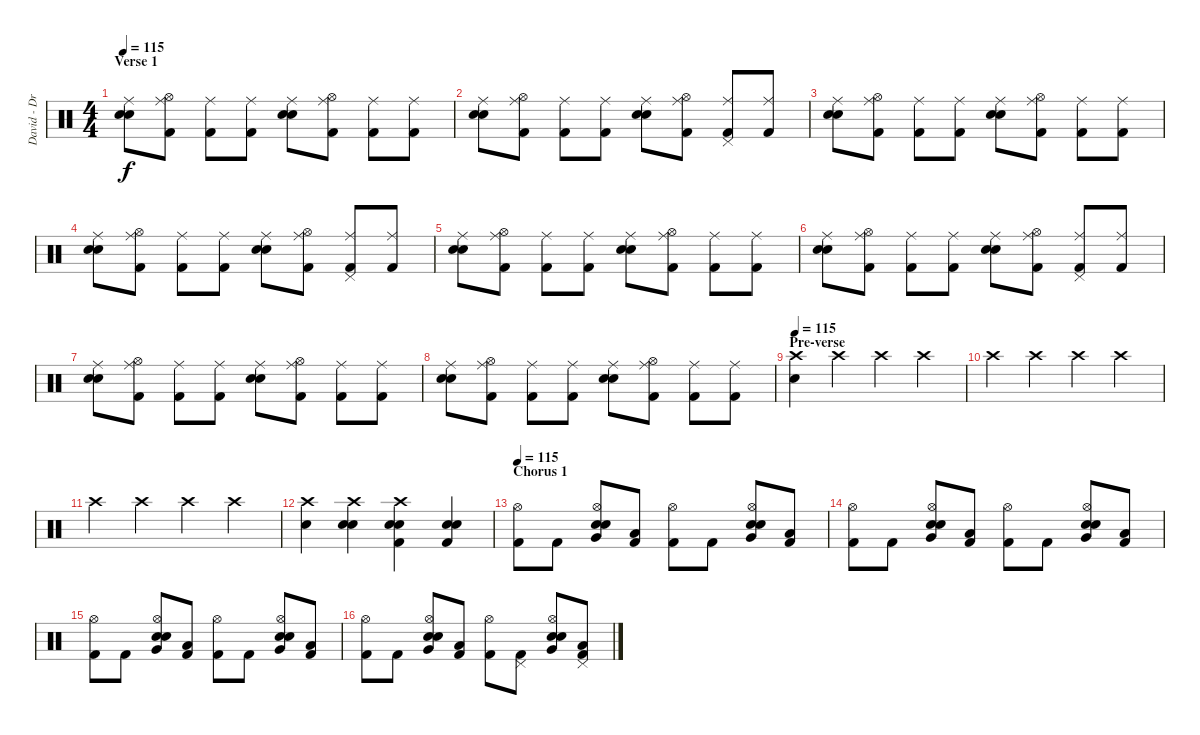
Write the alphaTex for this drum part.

\track ("David - Drums" "David - Dr") {instrument percussion}
\staff {score}
\articulation defaults
\ts (4 4)
\section ("" "Verse 1")
\tempo 115
\clef neutral
\ks c
("Ride (middle)" "Electric Snare (hit)" "Snare (hit) 2").8{dy f} ("Ride (middle)" "Hi-Hat (open)" "Kick (hit) 2").8 ("Ride (middle)" "Kick (hit) 2").8 ("Ride (middle)" "Kick (hit) 2").8 ("Ride (middle)" "Electric Snare (hit)" "Snare (hit) 2").8 ("Ride (middle)" "Hi-Hat (open)" "Kick (hit) 2").8 ("Ride (middle)" "Kick (hit) 2").8 ("Ride (middle)" "Kick (hit) 2").8 |
("Ride (middle)" "Electric Snare (hit)" "Snare (hit) 2").8 ("Ride (middle)" "Hi-Hat (open)" "Kick (hit) 2").8 ("Ride (middle)" "Kick (hit) 2").8 ("Ride (middle)" "Kick (hit) 2").8 ("Ride (middle)" "Electric Snare (hit)" "Snare (hit) 2").8 ("Ride (middle)" "Hi-Hat (open)" "Kick (hit) 2").8 ("Ride (middle)" "Pedal Hi-Hat (hit)" "Kick (hit) 2").8 ("Ride (middle)" "Kick (hit) 2").8 |
("Ride (middle)" "Electric Snare (hit)" "Snare (hit) 2").8 ("Ride (middle)" "Hi-Hat (open)" "Kick (hit) 2").8 ("Ride (middle)" "Kick (hit) 2").8 ("Ride (middle)" "Kick (hit) 2").8 ("Ride (middle)" "Electric Snare (hit)" "Snare (hit) 2").8 ("Ride (middle)" "Hi-Hat (open)" "Kick (hit) 2").8 ("Ride (middle)" "Kick (hit) 2").8 ("Ride (middle)" "Kick (hit) 2").8 |
("Ride (middle)" "Electric Snare (hit)" "Snare (hit) 2").8 ("Ride (middle)" "Hi-Hat (open)" "Kick (hit) 2").8 ("Ride (middle)" "Kick (hit) 2").8 ("Ride (middle)" "Kick (hit) 2").8 ("Ride (middle)" "Electric Snare (hit)" "Snare (hit) 2").8 ("Ride (middle)" "Hi-Hat (open)" "Kick (hit) 2").8 ("Ride (middle)" "Pedal Hi-Hat (hit)" "Kick (hit) 2").8 ("Ride (middle)" "Kick (hit) 2").8 |
("Ride (middle)" "Electric Snare (hit)" "Snare (hit) 2").8 ("Ride (middle)" "Hi-Hat (open)" "Kick (hit) 2").8 ("Ride (middle)" "Kick (hit) 2").8 ("Ride (middle)" "Kick (hit) 2").8 ("Ride (middle)" "Electric Snare (hit)" "Snare (hit) 2").8 ("Ride (middle)" "Hi-Hat (open)" "Kick (hit) 2").8 ("Ride (middle)" "Kick (hit) 2").8 ("Ride (middle)" "Kick (hit) 2").8 |
("Ride (middle)" "Electric Snare (hit)" "Snare (hit) 2").8 ("Ride (middle)" "Hi-Hat (open)" "Kick (hit) 2").8 ("Ride (middle)" "Kick (hit) 2").8 ("Ride (middle)" "Kick (hit) 2").8 ("Ride (middle)" "Electric Snare (hit)" "Snare (hit) 2").8 ("Ride (middle)" "Hi-Hat (open)" "Kick (hit) 2").8 ("Ride (middle)" "Pedal Hi-Hat (hit)" "Kick (hit) 2").8 ("Ride (middle)" "Kick (hit) 2").8 |
("Ride (middle)" "Electric Snare (hit)" "Snare (hit) 2").8 ("Ride (middle)" "Hi-Hat (open)" "Kick (hit) 2").8 ("Ride (middle)" "Kick (hit) 2").8 ("Ride (middle)" "Kick (hit) 2").8 ("Ride (middle)" "Electric Snare (hit)" "Snare (hit) 2").8 ("Ride (middle)" "Hi-Hat (open)" "Kick (hit) 2").8 ("Ride (middle)" "Kick (hit) 2").8 ("Ride (middle)" "Kick (hit) 2").8 |
("Ride (middle)" "Electric Snare (hit)" "Snare (hit) 2").8 ("Ride (middle)" "Hi-Hat (open)" "Kick (hit) 2").8 ("Ride (middle)" "Kick (hit) 2").8 ("Ride (middle)" "Kick (hit) 2").8 ("Ride (middle)" "Electric Snare (hit)" "Snare (hit) 2").8 ("Ride (middle)" "Hi-Hat (open)" "Kick (hit) 2").8 ("Ride (middle)" "Kick (hit) 2").8 ("Ride (middle)" "Kick (hit) 2").8 |
\section ("" "Pre-verse")
\tempo 115
("Crash high (hit)" "Electric Snare (hit)").4 "Crash high (hit)".4 "Crash high (hit)".4 "Crash high (hit)".4 |
"Crash high (hit)".4 "Crash high (hit)".4 "Crash high (hit)".4 "Crash high (hit)".4 |
"Crash high (hit)".4 "Crash high (hit)".4 "Crash high (hit)".4 "Crash high (hit)".4 |
("Crash high (hit)" "Electric Snare (hit)").4 ("Crash high (hit)" "Electric Snare (hit)" "Snare (hit) 2").4{bd 240} ("Crash high (hit)" "Electric Snare (hit)" "Snare (hit) 2" "Kick (hit) 2").4 ("Electric Snare (hit)" "Snare (hit) 2" "Kick (hit) 2").4 |
\section ("" "Chorus 1")
\tempo 115
("Hi-Hat (open)" "Kick (hit) 2").8 "Kick (hit) 2".8 ("Hi-Hat (open)" "Very Low Tom (hit)" "Electric Snare (hit)" "Snare (hit) 2").8 ("Low Floor Tom (hit)" "Kick (hit) 2").8 ("Hi-Hat (open)" "Kick (hit) 2").8 "Kick (hit) 2".8 ("Hi-Hat (open)" "Very Low Tom (hit)" "Electric Snare (hit)" "Snare (hit) 2").8 ("Low Floor Tom (hit)" "Kick (hit) 2").8 |
("Hi-Hat (open)" "Kick (hit) 2").8 "Kick (hit) 2".8 ("Hi-Hat (open)" "Very Low Tom (hit)" "Electric Snare (hit)" "Snare (hit) 2").8 ("Low Floor Tom (hit)" "Kick (hit) 2").8 ("Hi-Hat (open)" "Kick (hit) 2").8 "Kick (hit) 2".8 ("Hi-Hat (open)" "Very Low Tom (hit)" "Electric Snare (hit)" "Snare (hit) 2").8 ("Low Floor Tom (hit)" "Kick (hit) 2").8 |
("Hi-Hat (open)" "Kick (hit) 2").8 "Kick (hit) 2".8 ("Hi-Hat (open)" "Very Low Tom (hit)" "Electric Snare (hit)" "Snare (hit) 2").8 ("Low Floor Tom (hit)" "Kick (hit) 2").8 ("Hi-Hat (open)" "Kick (hit) 2").8 "Kick (hit) 2".8 ("Hi-Hat (open)" "Very Low Tom (hit)" "Electric Snare (hit)" "Snare (hit) 2").8 ("Low Floor Tom (hit)" "Kick (hit) 2").8 |
("Hi-Hat (open)" "Kick (hit) 2").8 "Kick (hit) 2".8 ("Hi-Hat (open)" "Very Low Tom (hit)" "Electric Snare (hit)" "Snare (hit) 2").8 ("Low Floor Tom (hit)" "Kick (hit) 2").8 ("Hi-Hat (open)" "Kick (hit) 2").8 ("Pedal Hi-Hat (hit)" "Kick (hit) 2").8 ("Hi-Hat (open)" "Very Low Tom (hit)" "Electric Snare (hit)" "Snare (hit) 2").8 ("Pedal Hi-Hat (hit)" "Low Floor Tom (hit)" "Kick (hit) 2").8
